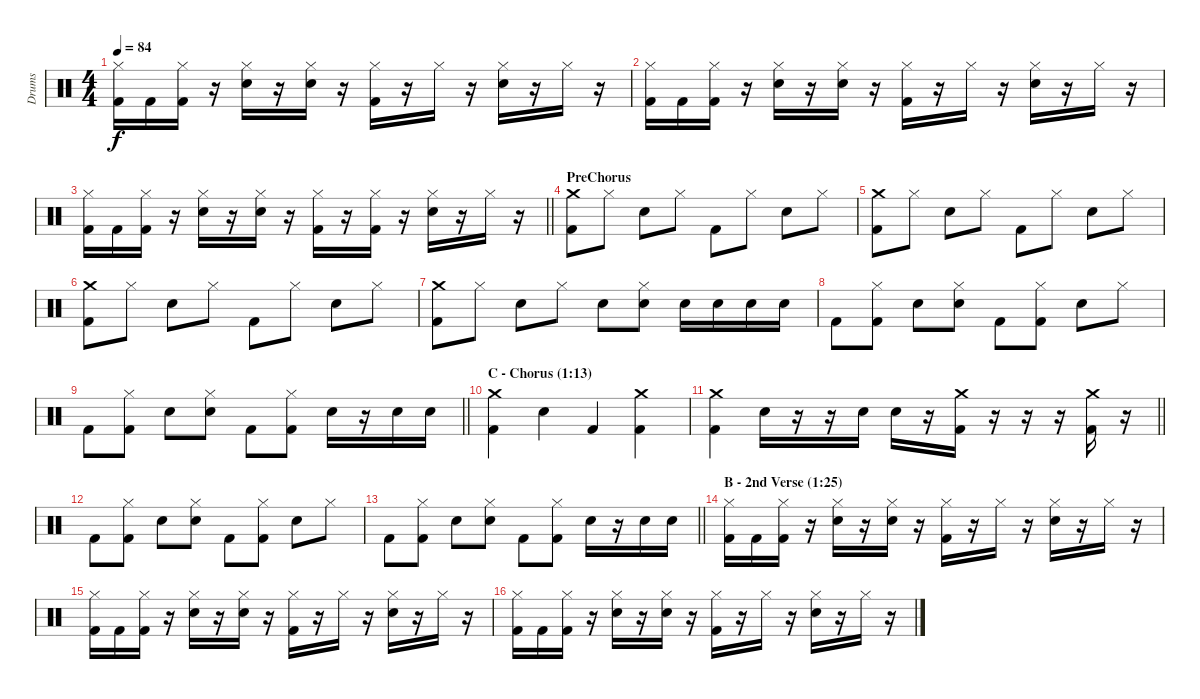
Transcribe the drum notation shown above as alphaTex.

\track ("Drums" "Drums") {instrument percussion}
\staff {score}
\articulation defaults
\ts (4 4)
\tempo 84
\clef neutral
\ks c
("Hi-Hat (closed)" "Kick (hit) 2").16{dy f} "Kick (hit) 2".16 ("Hi-Hat (closed)" "Kick (hit) 2").16 r.16 ("Hi-Hat (closed)" "Snare (hit) 2").16 r.16 ("Hi-Hat (closed)" "Snare (hit) 2").16 r.16 ("Hi-Hat (closed)" "Kick (hit) 2").16 r.16 "Hi-Hat (closed)".16 r.16 ("Hi-Hat (closed)" "Snare (hit) 2").16 r.16 "Hi-Hat (closed)".16 r.16 |
("Hi-Hat (closed)" "Kick (hit) 2").16 "Kick (hit) 2".16 ("Hi-Hat (closed)" "Kick (hit) 2").16 r.16 ("Hi-Hat (closed)" "Snare (hit) 2").16 r.16 ("Hi-Hat (closed)" "Snare (hit) 2").16 r.16 ("Hi-Hat (closed)" "Kick (hit) 2").16 r.16 "Hi-Hat (closed)".16 r.16 ("Hi-Hat (closed)" "Snare (hit) 2").16 r.16 "Hi-Hat (closed)".16 r.16 |
\barLineRight lightlight
("Hi-Hat (closed)" "Kick (hit) 2").16 "Kick (hit) 2".16 ("Hi-Hat (closed)" "Kick (hit) 2").16 r.16 ("Hi-Hat (closed)" "Snare (hit) 2").16 r.16 ("Hi-Hat (closed)" "Snare (hit) 2").16 r.16 ("Hi-Hat (closed)" "Kick (hit) 2").16 r.16 ("Hi-Hat (closed)" "Kick (hit) 2").16 r.16 ("Hi-Hat (closed)" "Snare (hit) 2").16 r.16 "Hi-Hat (closed)".16 r.16 |
\section ("" "PreChorus")
("Crash medium (hit)" "Kick (hit) 2").8 "Hi-Hat (closed)".8 "Snare (hit) 2".8 "Hi-Hat (closed)".8 "Kick (hit) 2".8 "Hi-Hat (closed)".8 "Snare (hit) 2".8 "Hi-Hat (closed)".8 |
("Crash medium (hit)" "Kick (hit) 2").8 "Hi-Hat (closed)".8 "Snare (hit) 2".8 "Hi-Hat (closed)".8 "Kick (hit) 2".8 "Hi-Hat (closed)".8 "Snare (hit) 2".8 "Hi-Hat (closed)".8 |
("Crash medium (hit)" "Kick (hit) 2").8 "Hi-Hat (closed)".8 "Snare (hit) 2".8 "Hi-Hat (closed)".8 "Kick (hit) 2".8 "Hi-Hat (closed)".8 "Snare (hit) 2".8 "Hi-Hat (closed)".8 |
("Crash medium (hit)" "Kick (hit) 2").8 "Hi-Hat (closed)".8 "Snare (hit) 2".8 "Hi-Hat (closed)".8 "Snare (hit) 2".8 ("Hi-Hat (closed)" "Snare (hit) 2").8 "Snare (hit) 2".16 "Snare (hit) 2".16 "Snare (hit) 2".16 "Snare (hit) 2".16 |
"Kick (hit) 2".8 ("Hi-Hat (closed)" "Kick (hit) 2").8 "Snare (hit) 2".8 ("Hi-Hat (closed)" "Snare (hit) 2").8 "Kick (hit) 2".8 ("Hi-Hat (closed)" "Kick (hit) 2").8 "Snare (hit) 2".8 "Hi-Hat (closed)".8 |
\barLineRight lightlight "Kick (hit) 2".8
("Hi-Hat (closed)" "Kick (hit) 2").8 "Snare (hit) 2".8 ("Hi-Hat (closed)" "Snare (hit) 2").8 "Kick (hit) 2".8 ("Hi-Hat (closed)" "Kick (hit) 2").8 "Snare (hit) 2".16 r.16 "Snare (hit) 2".16 "Snare (hit) 2".16 |
\section ("" "C - Chorus (1:13)")
("Crash medium (hit)" "Kick (hit) 2").4 "Snare (hit) 2".4 "Kick (hit) 2".4 ("Crash medium (hit)" "Kick (hit) 2").4 |
\barLineRight lightlight
("Crash medium (hit)" "Kick (hit) 2").4 "Snare (hit) 2".16 r.16 r.16 "Snare (hit) 2".16 "Snare (hit) 2".16 r.16 ("Crash medium (hit)" "Kick (hit) 2").16 r.16 r.16 r.16 ("Crash medium (hit)" "Kick (hit) 2").16 r.16 |
"Kick (hit) 2".8 ("Hi-Hat (closed)" "Kick (hit) 2").8 "Snare (hit) 2".8 ("Hi-Hat (closed)" "Snare (hit) 2").8 "Kick (hit) 2".8 ("Hi-Hat (closed)" "Kick (hit) 2").8 "Snare (hit) 2".8 "Hi-Hat (closed)".8 |
\barLineRight lightlight "Kick (hit) 2".8
("Hi-Hat (closed)" "Kick (hit) 2").8 "Snare (hit) 2".8 ("Hi-Hat (closed)" "Snare (hit) 2").8 "Kick (hit) 2".8 ("Hi-Hat (closed)" "Kick (hit) 2").8 "Snare (hit) 2".16 r.16 "Snare (hit) 2".16 "Snare (hit) 2".16 |
\section ("" "B - 2nd Verse (1:25)")
("Hi-Hat (closed)" "Kick (hit) 2").16 "Kick (hit) 2".16 ("Hi-Hat (closed)" "Kick (hit) 2").16 r.16 ("Hi-Hat (closed)" "Snare (hit) 2").16 r.16 ("Hi-Hat (closed)" "Snare (hit) 2").16 r.16 ("Hi-Hat (closed)" "Kick (hit) 2").16 r.16 "Hi-Hat (closed)".16 r.16 ("Hi-Hat (closed)" "Snare (hit) 2").16 r.16 "Hi-Hat (closed)".16 r.16 |
("Hi-Hat (closed)" "Kick (hit) 2").16 "Kick (hit) 2".16 ("Hi-Hat (closed)" "Kick (hit) 2").16 r.16 ("Hi-Hat (closed)" "Snare (hit) 2").16 r.16 ("Hi-Hat (closed)" "Snare (hit) 2").16 r.16 ("Hi-Hat (closed)" "Kick (hit) 2").16 r.16 "Hi-Hat (closed)".16 r.16 ("Hi-Hat (closed)" "Snare (hit) 2").16 r.16 "Hi-Hat (closed)".16 r.16 |
("Hi-Hat (closed)" "Kick (hit) 2").16 "Kick (hit) 2".16 ("Hi-Hat (closed)" "Kick (hit) 2").16 r.16 ("Hi-Hat (closed)" "Snare (hit) 2").16 r.16 ("Hi-Hat (closed)" "Snare (hit) 2").16 r.16 ("Hi-Hat (closed)" "Kick (hit) 2").16 r.16 "Hi-Hat (closed)".16 r.16 ("Hi-Hat (closed)" "Snare (hit) 2").16 r.16 "Hi-Hat (closed)".16 r.16
